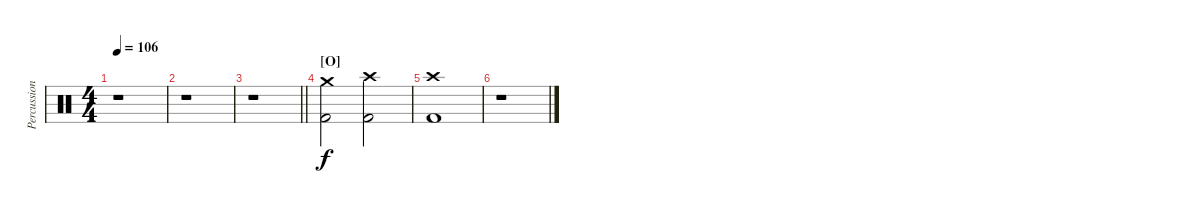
\track ("Percussions" "Percussion") {instrument percussion}
\staff {score}
\articulation defaults
\ts (4 4)
\tempo 106
\clef neutral
\ks c
r.1{dy f} |
r.1 |
\barLineRight lightlight
r.1 |
\section ("" "[O]")
("Crash medium (hit)" "Kick (hit) 2").2 ("Crash high (hit)" "Kick (hit) 2").2 |
("Crash high (hit)" "Kick (hit) 2").1 |
r.1
